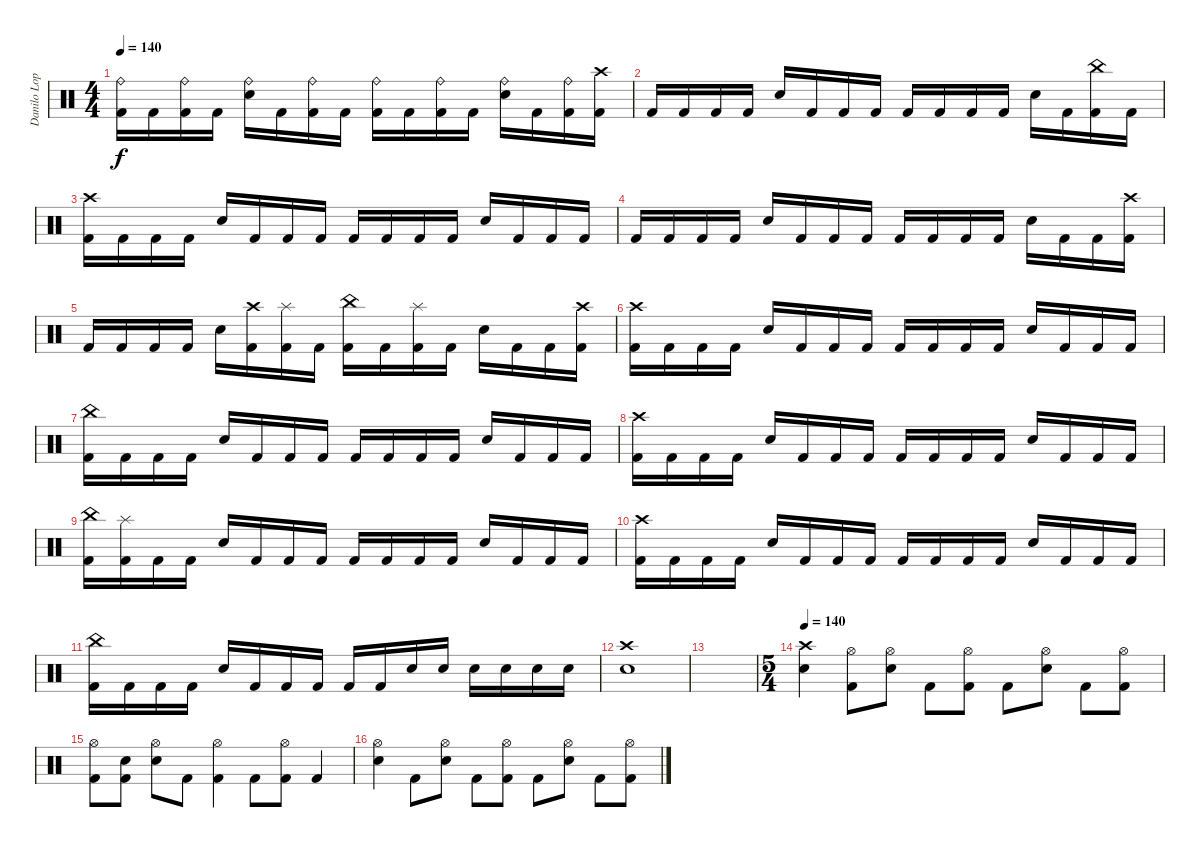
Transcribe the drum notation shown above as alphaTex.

\track ("Danilo Lopes" "Danilo Lop") {instrument percussion}
\staff {score}
\articulation defaults
\ts (4 4)
\tempo 140
\clef neutral
\ks c
("Ride (bell)" "Kick (hit) 2").16{dy f} "Kick (hit) 2".16 ("Ride (bell)" "Kick (hit) 2").16 "Kick (hit) 2".16 ("Ride (bell)" "Snare (hit) 2").16 "Kick (hit) 2".16 ("Ride (bell)" "Kick (hit) 2").16 "Kick (hit) 2".16 ("Ride (bell)" "Kick (hit) 2").16 "Kick (hit) 2".16 ("Ride (bell)" "Kick (hit) 2").16 "Kick (hit) 2".16 ("Ride (bell)" "Snare (hit) 2").16 "Kick (hit) 2".16 ("Ride (bell)" "Kick (hit) 2").16 ("Crash high (hit)" "Kick (hit) 2").16 |
"Kick (hit) 2".16 "Kick (hit) 2".16 "Kick (hit) 2".16 "Kick (hit) 2".16 "Snare (hit) 2".16 "Kick (hit) 2".16 "Kick (hit) 2".16 "Kick (hit) 2".16 "Kick (hit) 2".16 "Kick (hit) 2".16 "Kick (hit) 2".16 "Kick (hit) 2".16 "Snare (hit) 2".16 "Kick (hit) 2".16 ("China (hit)" "Kick (hit) 2").16 "Kick (hit) 2".16 |
("Crash high (hit)" "Kick (hit) 2").16 "Kick (hit) 2".16 "Kick (hit) 2".16 "Kick (hit) 2".16 "Snare (hit) 2".16 "Kick (hit) 2".16 "Kick (hit) 2".16 "Kick (hit) 2".16 "Kick (hit) 2".16 "Kick (hit) 2".16 "Kick (hit) 2".16 "Kick (hit) 2".16 "Snare (hit) 2".16 "Kick (hit) 2".16 "Kick (hit) 2".16 "Kick (hit) 2".16 |
"Kick (hit) 2".16 "Kick (hit) 2".16 "Kick (hit) 2".16 "Kick (hit) 2".16 "Snare (hit) 2".16 "Kick (hit) 2".16 "Kick (hit) 2".16 "Kick (hit) 2".16 "Kick (hit) 2".16 "Kick (hit) 2".16 "Kick (hit) 2".16 "Kick (hit) 2".16 "Snare (hit) 2".16 "Kick (hit) 2".16 "Kick (hit) 2".16 ("Crash high (hit)" "Kick (hit) 2").16 |
"Kick (hit) 2".16 "Kick (hit) 2".16 "Kick (hit) 2".16 "Kick (hit) 2".16 "Snare (hit) 2".16 ("Crash high (hit)" "Kick (hit) 2").16 ("Splash (hit)" "Kick (hit) 2").16 "Kick (hit) 2".16 ("China (hit)" "Kick (hit) 2").16 "Kick (hit) 2".16 ("Splash (hit)" "Kick (hit) 2").16 "Kick (hit) 2".16 "Snare (hit) 2".16 "Kick (hit) 2".16 "Kick (hit) 2".16 ("Crash high (hit)" "Kick (hit) 2").16 |
("Crash high (hit)" "Kick (hit) 2").16 "Kick (hit) 2".16 "Kick (hit) 2".16 "Kick (hit) 2".16 "Snare (hit) 2".16 "Kick (hit) 2".16 "Kick (hit) 2".16 "Kick (hit) 2".16 "Kick (hit) 2".16 "Kick (hit) 2".16 "Kick (hit) 2".16 "Kick (hit) 2".16 "Snare (hit) 2".16 "Kick (hit) 2".16 "Kick (hit) 2".16 "Kick (hit) 2".16 |
("China (hit)" "Kick (hit) 2").16 "Kick (hit) 2".16 "Kick (hit) 2".16 "Kick (hit) 2".16 "Snare (hit) 2".16 "Kick (hit) 2".16 "Kick (hit) 2".16 "Kick (hit) 2".16 "Kick (hit) 2".16 "Kick (hit) 2".16 "Kick (hit) 2".16 "Kick (hit) 2".16 "Snare (hit) 2".16 "Kick (hit) 2".16 "Kick (hit) 2".16 "Kick (hit) 2".16 |
("Crash high (hit)" "Kick (hit) 2").16 "Kick (hit) 2".16 "Kick (hit) 2".16 "Kick (hit) 2".16 "Snare (hit) 2".16 "Kick (hit) 2".16 "Kick (hit) 2".16 "Kick (hit) 2".16 "Kick (hit) 2".16 "Kick (hit) 2".16 "Kick (hit) 2".16 "Kick (hit) 2".16 "Snare (hit) 2".16 "Kick (hit) 2".16 "Kick (hit) 2".16 "Kick (hit) 2".16 |
("China (hit)" "Kick (hit) 2").16 ("Splash (hit)" "Kick (hit) 2").16 "Kick (hit) 2".16 "Kick (hit) 2".16 "Snare (hit) 2".16 "Kick (hit) 2".16 "Kick (hit) 2".16 "Kick (hit) 2".16 "Kick (hit) 2".16 "Kick (hit) 2".16 "Kick (hit) 2".16 "Kick (hit) 2".16 "Snare (hit) 2".16 "Kick (hit) 2".16 "Kick (hit) 2".16 "Kick (hit) 2".16 |
("Crash high (hit)" "Kick (hit) 2").16 "Kick (hit) 2".16 "Kick (hit) 2".16 "Kick (hit) 2".16 "Snare (hit) 2".16 "Kick (hit) 2".16 "Kick (hit) 2".16 "Kick (hit) 2".16 "Kick (hit) 2".16 "Kick (hit) 2".16 "Kick (hit) 2".16 "Kick (hit) 2".16 "Snare (hit) 2".16 "Kick (hit) 2".16 "Kick (hit) 2".16 "Kick (hit) 2".16 |
("China (hit)" "Kick (hit) 2").16 "Kick (hit) 2".16 "Kick (hit) 2".16 "Kick (hit) 2".16 "Snare (hit) 2".16 "Kick (hit) 2".16 "Kick (hit) 2".16 "Kick (hit) 2".16 "Kick (hit) 2".16 "Kick (hit) 2".16 "Snare (hit) 2".16 "Snare (hit) 2".16 "Snare (hit) 2".16 "Snare (hit) 2".16 "Snare (hit) 2".16 "Snare (hit) 2".16 |
("Crash high (hit)" "Snare (hit) 2").1 |
|
\ts (5 4)
\tempo 140
("Crash high (hit)" "Snare (hit) 2").4 ("Kick (hit) 2" "Hi-Hat (open)").8 ("Snare (hit) 2" "Hi-Hat (open)").8 "Kick (hit) 2".8 ("Kick (hit) 2" "Hi-Hat (open)").8 "Kick (hit) 2".8 ("Snare (hit) 2" "Hi-Hat (open)").8 "Kick (hit) 2".8 ("Kick (hit) 2" "Hi-Hat (open)").8 |
("Kick (hit) 2" "Hi-Hat (open)").8 ("Kick (hit) 2" "Snare (hit)").8 ("Snare (hit) 2" "Hi-Hat (open)").8 "Kick (hit) 2".8 ("Kick (hit) 2" "Hi-Hat (open)").4 "Kick (hit) 2".8 ("Kick (hit) 2" "Hi-Hat (open)").8 "Kick (hit) 2".4 |
("Snare (hit) 2" "Hi-Hat (open)").4 "Kick (hit) 2".8 ("Snare (hit) 2" "Hi-Hat (open)").8 "Kick (hit) 2".8 ("Kick (hit) 2" "Hi-Hat (open)").8 "Kick (hit) 2".8 ("Snare (hit) 2" "Hi-Hat (open)").8 "Kick (hit) 2".8 ("Kick (hit) 2" "Hi-Hat (open)").8
